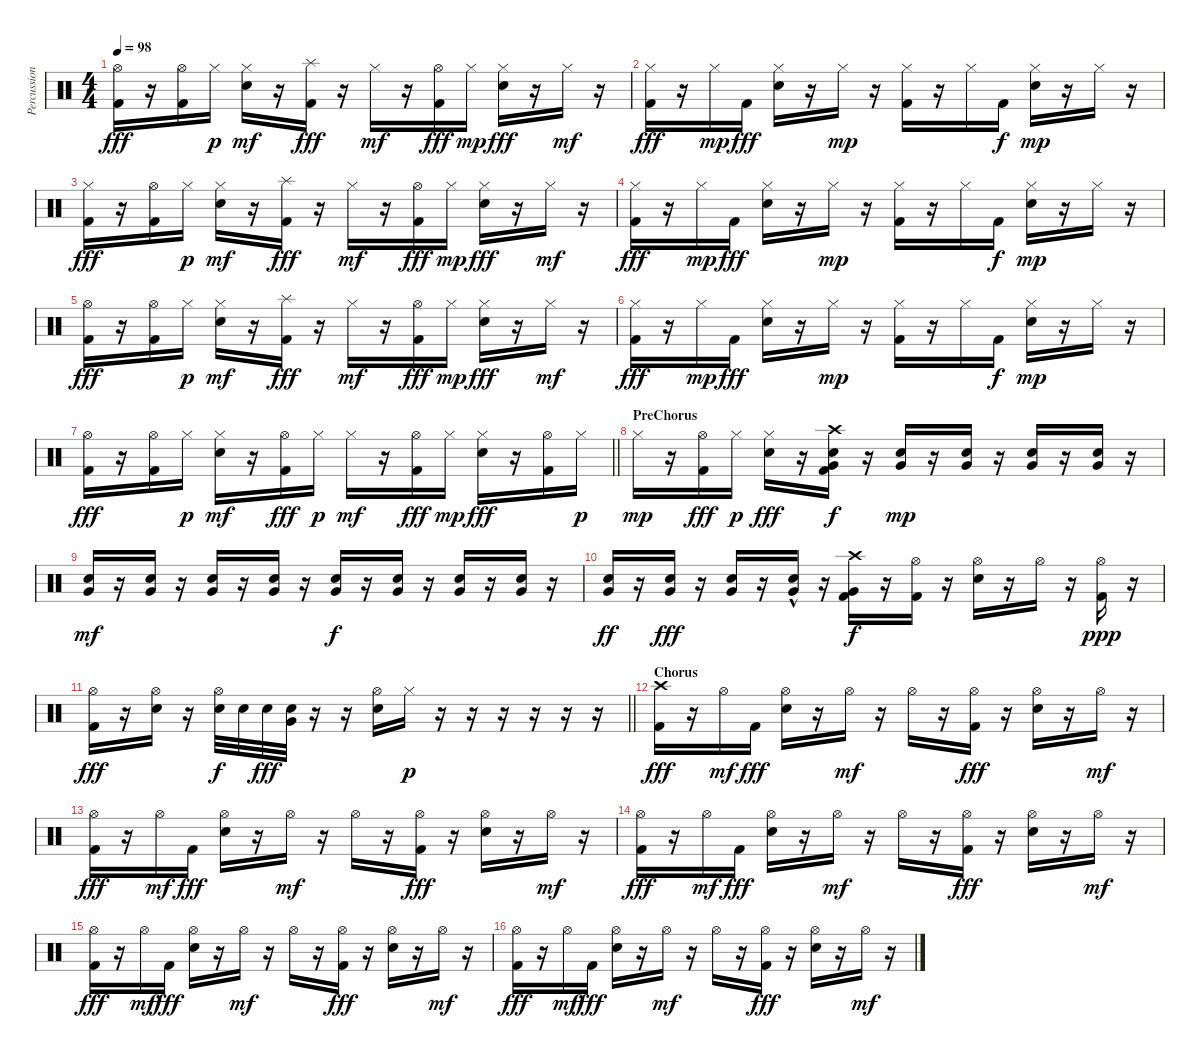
\track ("Percussion" "Percussion") {instrument percussion}
\staff {score}
\articulation defaults
\ts (4 4)
\tempo 98
\clef neutral
\ks c
("Hi-Hat (open)" "Kick (hit) 2").16{dy fff} r.16 ("Hi-Hat (open)" "Kick (hit) 2").16 "Hi-Hat (closed)".16{dy p} ("Hi-Hat (closed)" "Electric Snare (hit)").16{dy mf} r.16 ("Splash (hit)" "Kick (hit) 2").16{dy fff} r.16 "Hi-Hat (closed)".16{dy mf} r.16 ("Hi-Hat (open)" "Kick (hit) 2").16{dy fff} "Hi-Hat (closed)".16{dy mp} ("Hi-Hat (closed)" "Electric Snare (hit)").16{dy fff} r.16 "Hi-Hat (closed)".16{dy mf} r.16 |
("Hi-Hat (closed)" "Kick (hit) 2").16{dy fff} r.16 "Hi-Hat (closed)".16{dy mp} "Kick (hit) 2".16{dy fff} ("Hi-Hat (closed)" "Electric Snare (hit)").16 r.16 "Hi-Hat (closed)".16{dy mp} r.16 ("Hi-Hat (closed)" "Kick (hit) 2").16 r.16 "Hi-Hat (closed)".16 "Kick (hit) 2".16{dy f} ("Hi-Hat (closed)" "Electric Snare (hit)").16{dy mp} r.16 "Hi-Hat (closed)".16 r.16 |
("Hi-Hat (closed)" "Kick (hit) 2").16{dy fff} r.16 ("Hi-Hat (open)" "Kick (hit) 2").16 "Hi-Hat (closed)".16{dy p} ("Hi-Hat (closed)" "Electric Snare (hit)").16{dy mf} r.16 ("Splash (hit)" "Kick (hit) 2").16{dy fff} r.16 "Hi-Hat (closed)".16{dy mf} r.16 ("Hi-Hat (open)" "Kick (hit) 2").16{dy fff} "Hi-Hat (closed)".16{dy mp} ("Hi-Hat (closed)" "Electric Snare (hit)").16{dy fff} r.16 "Hi-Hat (closed)".16{dy mf} r.16 |
("Hi-Hat (closed)" "Kick (hit) 2").16{dy fff} r.16 "Hi-Hat (closed)".16{dy mp} "Kick (hit) 2".16{dy fff} ("Hi-Hat (closed)" "Electric Snare (hit)").16 r.16 "Hi-Hat (closed)".16{dy mp} r.16 ("Hi-Hat (closed)" "Kick (hit) 2").16 r.16 "Hi-Hat (closed)".16 "Kick (hit) 2".16{dy f} ("Hi-Hat (closed)" "Electric Snare (hit)").16{dy mp} r.16 "Hi-Hat (closed)".16 r.16 |
("Hi-Hat (open)" "Kick (hit) 2").16{dy fff} r.16 ("Hi-Hat (open)" "Kick (hit) 2").16 "Hi-Hat (closed)".16{dy p} ("Hi-Hat (closed)" "Electric Snare (hit)").16{dy mf} r.16 ("Splash (hit)" "Kick (hit) 2").16{dy fff} r.16 "Hi-Hat (closed)".16{dy mf} r.16 ("Hi-Hat (open)" "Kick (hit) 2").16{dy fff} "Hi-Hat (closed)".16{dy mp} ("Hi-Hat (closed)" "Electric Snare (hit)").16{dy fff} r.16 "Hi-Hat (closed)".16{dy mf} r.16 |
("Hi-Hat (closed)" "Kick (hit) 2").16{dy fff} r.16 "Hi-Hat (closed)".16{dy mp} "Kick (hit) 2".16{dy fff} ("Hi-Hat (closed)" "Electric Snare (hit)").16 r.16 "Hi-Hat (closed)".16{dy mp} r.16 ("Hi-Hat (closed)" "Kick (hit) 2").16 r.16 "Hi-Hat (closed)".16 "Kick (hit) 2".16{dy f} ("Hi-Hat (closed)" "Electric Snare (hit)").16{dy mp} r.16 "Hi-Hat (closed)".16 r.16 |
\barLineRight lightlight
("Hi-Hat (open)" "Kick (hit) 2").16{dy fff} r.16 ("Hi-Hat (open)" "Kick (hit) 2").16 "Hi-Hat (closed)".16{dy p} ("Hi-Hat (closed)" "Electric Snare (hit)").16{dy mf} r.16 ("Hi-Hat (open)" "Kick (hit) 2").16{dy fff} "Hi-Hat (closed)".16{dy p} "Hi-Hat (closed)".16{dy mf} r.16 ("Hi-Hat (open)" "Kick (hit) 2").16{dy fff} "Hi-Hat (closed)".16{dy mp} ("Hi-Hat (closed)" "Electric Snare (hit)").16{dy fff} r.16 ("Hi-Hat (open)" "Kick (hit) 2").16 "Hi-Hat (closed)".16{dy p} |
\section ("" "PreChorus")
"Hi-Hat (closed)".16{dy mp} r.16 ("Hi-Hat (open)" "Kick (hit) 2").16{dy fff} "Hi-Hat (closed)".16{dy p} ("Hi-Hat (closed)" "Electric Snare (hit)").16{dy fff} r.16 ("Crash high (hit)" "Kick (hit) 2" "Electric Snare (hit)" "Very Low Tom (hit)").16{dy f} r.16 ("Electric Snare (hit)" "Very Low Tom (hit)").16{dy mp} r.16 ("Electric Snare (hit)" "Very Low Tom (hit)").16 r.16 ("Electric Snare (hit)" "Very Low Tom (hit)").16 r.16 ("Electric Snare (hit)" "Very Low Tom (hit)").16 r.16 |
("Electric Snare (hit)" "Very Low Tom (hit)").16{dy mf} r.16 ("Electric Snare (hit)" "Very Low Tom (hit)").16 r.16 ("Electric Snare (hit)" "Very Low Tom (hit)").16 r.16 ("Electric Snare (hit)" "Very Low Tom (hit)").16 r.16 ("Electric Snare (hit)" "Very Low Tom (hit)").16{dy f} r.16 ("Electric Snare (hit)" "Very Low Tom (hit)").16 r.16 ("Electric Snare (hit)" "Very Low Tom (hit)").16 r.16 ("Electric Snare (hit)" "Very Low Tom (hit)").16 r.16 |
("Electric Snare (hit)" "Very Low Tom (hit)").16{dy ff} r.16 ("Electric Snare (hit)" "Very Low Tom (hit)").16{dy fff} r.16 ("Electric Snare (hit)" "Very Low Tom (hit)").16 r.16 ("Electric Snare (hit)"{hac} "Very Low Tom (hit)"{hac}).16 r.16 ("Kick (hit) 2" "Very Low Tom (hit)" "Crash high (hit)").16{dy f} r.16 ("Hi-Hat (open)" "Kick (hit) 2").16 r.16 ("Hi-Hat (open)" "Electric Snare (hit)").16 r.16 "Hi-Hat (open)".16 r.16 ("Hi-Hat (open)" "Kick (hit) 2").16{dy ppp} r.16 |
\barLineRight lightlight
("Hi-Hat (open)" "Kick (hit) 2").16{dy fff} r.16 ("Hi-Hat (open)" "Electric Snare (hit)").16 r.16 ("Hi-Hat (open)" "Electric Snare (hit)").32{dy f} "Electric Snare (hit)".32 "Electric Snare (hit)".32{dy fff} ("Electric Snare (hit)" "Very Low Tom (hit)").32 r.16 r.16 ("Hi-Hat (open)" "Electric Snare (hit)").16 "Hi-Hat (closed)".16{dy p} r.16 r.16 r.16 r.16 r.16 r.16 |
\section ("" "Chorus")
("Crash high (hit)" "Kick (hit) 2").16{dy fff} r.16 "Hi-Hat (open)".16{dy mf} "Kick (hit) 2".16{dy fff} ("Hi-Hat (open)" "Electric Snare (hit)").16 r.16 "Hi-Hat (open)".16{dy mf} r.16 "Hi-Hat (open)".16 r.16 ("Hi-Hat (open)" "Kick (hit) 2").16{dy fff} r.16 ("Hi-Hat (open)" "Electric Snare (hit)").16 r.16 "Hi-Hat (open)".16{dy mf} r.16 |
("Hi-Hat (open)" "Kick (hit) 2").16{dy fff} r.16 "Hi-Hat (open)".16{dy mf} "Kick (hit) 2".16{dy fff} ("Hi-Hat (open)" "Electric Snare (hit)").16 r.16 "Hi-Hat (open)".16{dy mf} r.16 "Hi-Hat (open)".16 r.16 ("Hi-Hat (open)" "Kick (hit) 2").16{dy fff} r.16 ("Hi-Hat (open)" "Electric Snare (hit)").16 r.16 "Hi-Hat (open)".16{dy mf} r.16 |
("Hi-Hat (open)" "Kick (hit) 2").16{dy fff} r.16 "Hi-Hat (open)".16{dy mf} "Kick (hit) 2".16{dy fff} ("Hi-Hat (open)" "Electric Snare (hit)").16 r.16 "Hi-Hat (open)".16{dy mf} r.16 "Hi-Hat (open)".16 r.16 ("Hi-Hat (open)" "Kick (hit) 2").16{dy fff} r.16 ("Hi-Hat (open)" "Electric Snare (hit)").16 r.16 "Hi-Hat (open)".16{dy mf} r.16 |
("Hi-Hat (open)" "Kick (hit) 2").16{dy fff} r.16 "Hi-Hat (open)".16{dy mf} "Kick (hit) 2".16{dy fff} ("Hi-Hat (open)" "Electric Snare (hit)").16 r.16 "Hi-Hat (open)".16{dy mf} r.16 "Hi-Hat (open)".16 r.16 ("Hi-Hat (open)" "Kick (hit) 2").16{dy fff} r.16 ("Hi-Hat (open)" "Electric Snare (hit)").16 r.16 "Hi-Hat (open)".16{dy mf} r.16 |
("Hi-Hat (open)" "Kick (hit) 2").16{dy fff} r.16 "Hi-Hat (open)".16{dy mf} "Kick (hit) 2".16{dy fff} ("Hi-Hat (open)" "Electric Snare (hit)").16 r.16 "Hi-Hat (open)".16{dy mf} r.16 "Hi-Hat (open)".16 r.16 ("Hi-Hat (open)" "Kick (hit) 2").16{dy fff} r.16 ("Hi-Hat (open)" "Electric Snare (hit)").16 r.16 "Hi-Hat (open)".16{dy mf} r.16
